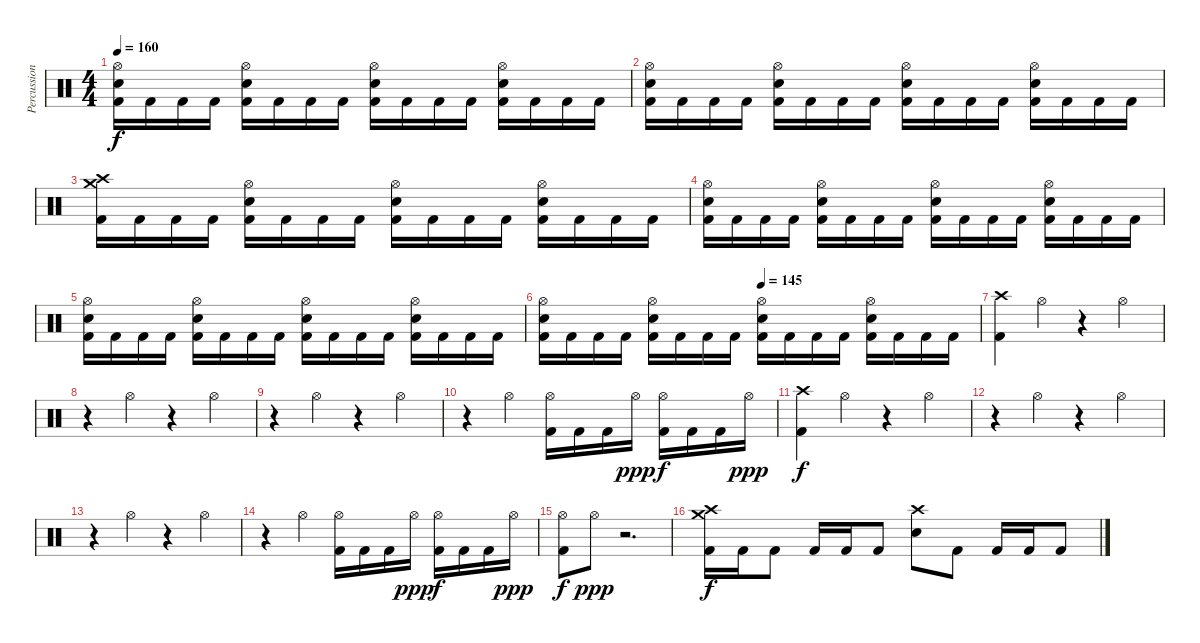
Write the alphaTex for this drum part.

\track ("Percussion" "Percussion") {instrument percussion}
\staff {score}
\articulation defaults
\ts (4 4)
\tempo 160
\clef neutral
\ks c
("Hi-Hat (open)" "Electric Snare (hit)" "Kick (hit) 2").16{dy f} "Kick (hit) 2".16 "Kick (hit) 2".16 "Kick (hit) 2".16 ("Hi-Hat (open)" "Electric Snare (hit)" "Kick (hit) 2").16 "Kick (hit) 2".16 "Kick (hit) 2".16 "Kick (hit) 2".16 ("Hi-Hat (open)" "Electric Snare (hit)" "Kick (hit) 2").16 "Kick (hit) 2".16 "Kick (hit) 2".16 "Kick (hit) 2".16 ("Hi-Hat (open)" "Electric Snare (hit)" "Kick (hit) 2").16 "Kick (hit) 2".16 "Kick (hit) 2".16 "Kick (hit) 2".16 |
("Hi-Hat (open)" "Electric Snare (hit)" "Kick (hit) 2").16 "Kick (hit) 2".16 "Kick (hit) 2".16 "Kick (hit) 2".16 ("Hi-Hat (open)" "Electric Snare (hit)" "Kick (hit) 2").16 "Kick (hit) 2".16 "Kick (hit) 2".16 "Kick (hit) 2".16 ("Hi-Hat (open)" "Electric Snare (hit)" "Kick (hit) 2").16 "Kick (hit) 2".16 "Kick (hit) 2".16 "Kick (hit) 2".16 ("Hi-Hat (open)" "Electric Snare (hit)" "Kick (hit) 2").16 "Kick (hit) 2".16 "Kick (hit) 2".16 "Kick (hit) 2".16 |
("Crash medium (hit)" "Crash high (hit)" "Kick (hit) 2").16 "Kick (hit) 2".16 "Kick (hit) 2".16 "Kick (hit) 2".16 ("Hi-Hat (open)" "Electric Snare (hit)" "Kick (hit) 2").16 "Kick (hit) 2".16 "Kick (hit) 2".16 "Kick (hit) 2".16 ("Hi-Hat (open)" "Electric Snare (hit)" "Kick (hit) 2").16 "Kick (hit) 2".16 "Kick (hit) 2".16 "Kick (hit) 2".16 ("Hi-Hat (open)" "Electric Snare (hit)" "Kick (hit) 2").16 "Kick (hit) 2".16 "Kick (hit) 2".16 "Kick (hit) 2".16 |
("Hi-Hat (open)" "Electric Snare (hit)" "Kick (hit) 2").16 "Kick (hit) 2".16 "Kick (hit) 2".16 "Kick (hit) 2".16 ("Hi-Hat (open)" "Electric Snare (hit)" "Kick (hit) 2").16 "Kick (hit) 2".16 "Kick (hit) 2".16 "Kick (hit) 2".16 ("Hi-Hat (open)" "Electric Snare (hit)" "Kick (hit) 2").16 "Kick (hit) 2".16 "Kick (hit) 2".16 "Kick (hit) 2".16 ("Hi-Hat (open)" "Electric Snare (hit)" "Kick (hit) 2").16 "Kick (hit) 2".16 "Kick (hit) 2".16 "Kick (hit) 2".16 |
("Hi-Hat (open)" "Electric Snare (hit)" "Kick (hit) 2").16 "Kick (hit) 2".16 "Kick (hit) 2".16 "Kick (hit) 2".16 ("Hi-Hat (open)" "Electric Snare (hit)" "Kick (hit) 2").16 "Kick (hit) 2".16 "Kick (hit) 2".16 "Kick (hit) 2".16 ("Hi-Hat (open)" "Electric Snare (hit)" "Kick (hit) 2").16 "Kick (hit) 2".16 "Kick (hit) 2".16 "Kick (hit) 2".16 ("Hi-Hat (open)" "Electric Snare (hit)" "Kick (hit) 2").16 "Kick (hit) 2".16 "Kick (hit) 2".16 "Kick (hit) 2".16 |
\tempo (145 0.5)
("Hi-Hat (open)" "Electric Snare (hit)" "Kick (hit) 2").16 "Kick (hit) 2".16 "Kick (hit) 2".16 "Kick (hit) 2".16 ("Hi-Hat (open)" "Electric Snare (hit)" "Kick (hit) 2").16 "Kick (hit) 2".16 "Kick (hit) 2".16 "Kick (hit) 2".16 ("Hi-Hat (open)" "Electric Snare (hit)" "Kick (hit) 2").16 "Kick (hit) 2".16 "Kick (hit) 2".16 "Kick (hit) 2".16 ("Hi-Hat (open)" "Electric Snare (hit)" "Kick (hit) 2").16 "Kick (hit) 2".16 "Kick (hit) 2".16 "Kick (hit) 2".16 |
("Crash high (hit)" "Kick (hit) 2").4 "Hi-Hat (open)".4 r.4 "Hi-Hat (open)".4 |
r.4 "Hi-Hat (open)".4 r.4 "Hi-Hat (open)".4 |
r.4 "Hi-Hat (open)".4 r.4 "Hi-Hat (open)".4 |
r.4 "Hi-Hat (open)".4 ("Hi-Hat (open)" "Kick (hit) 2").16 "Kick (hit) 2".16 "Kick (hit) 2".16 "Hi-Hat (open)".16{dy ppp} ("Hi-Hat (open)" "Kick (hit) 2").16{dy f} "Kick (hit) 2".16 "Kick (hit) 2".16 "Hi-Hat (open)".16{dy ppp} |
("Crash high (hit)" "Kick (hit) 2").4{dy f} "Hi-Hat (open)".4 r.4 "Hi-Hat (open)".4 |
r.4 "Hi-Hat (open)".4 r.4 "Hi-Hat (open)".4 |
r.4 "Hi-Hat (open)".4 r.4 "Hi-Hat (open)".4 |
r.4 "Hi-Hat (open)".4 ("Hi-Hat (open)" "Kick (hit) 2").16 "Kick (hit) 2".16 "Kick (hit) 2".16 "Hi-Hat (open)".16{dy ppp} ("Hi-Hat (open)" "Kick (hit) 2").16{dy f} "Kick (hit) 2".16 "Kick (hit) 2".16 "Hi-Hat (open)".16{dy ppp} |
("Hi-Hat (open)" "Kick (hit) 2").8{dy f} "Hi-Hat (open)".8{dy ppp} r.2{d} |
("Crash medium (hit)" "Crash high (hit)" "Kick (hit) 2").16{dy f} "Kick (hit) 2".16 "Kick (hit) 2".8 "Kick (hit) 2".16 "Kick (hit) 2".16 "Kick (hit) 2".8 ("Crash high (hit)" "Electric Snare (hit)").8 "Kick (hit) 2".8 "Kick (hit) 2".16 "Kick (hit) 2".16 "Kick (hit) 2".8
